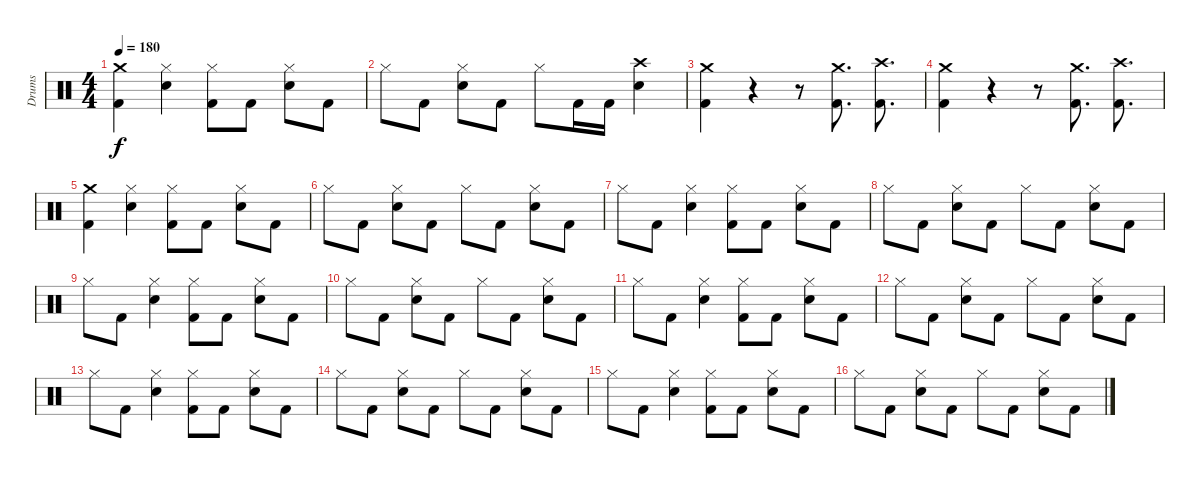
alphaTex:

\track ("Drums" "Drums") {instrument percussion}
\staff {score}
\articulation defaults
\ts (4 4)
\tempo 180
\clef neutral
\ks c
("Crash medium (hit)" "Kick (hit) 2").4{dy f} ("Hi-Hat (closed)" "Electric Snare (hit)").4 ("Hi-Hat (closed)" "Kick (hit) 2").8 "Kick (hit) 2".8 ("Hi-Hat (closed)" "Electric Snare (hit)").8 "Kick (hit) 2".8 |
"Hi-Hat (closed)".8 "Kick (hit) 2".8 ("Hi-Hat (closed)" "Electric Snare (hit)").8 "Kick (hit) 2".8 "Hi-Hat (closed)".8 "Kick (hit) 2".16 "Kick (hit) 2".16 ("Crash high (hit)" "Electric Snare (hit)").4 |
("Crash medium (hit)" "Kick (hit) 2").4 r.4 r.8 ("Crash medium (hit)" "Kick (hit) 2").8{d} ("Crash high (hit)" "Kick (hit) 2").8{d} |
("Crash medium (hit)" "Kick (hit) 2").4 r.4 r.8 ("Crash medium (hit)" "Kick (hit) 2").8{d} ("Crash high (hit)" "Kick (hit) 2").8{d} |
("Crash medium (hit)" "Kick (hit) 2").4 ("Hi-Hat (closed)" "Electric Snare (hit)").4 ("Hi-Hat (closed)" "Kick (hit) 2").8 "Kick (hit) 2".8 ("Hi-Hat (closed)" "Electric Snare (hit)").8 "Kick (hit) 2".8 |
"Hi-Hat (closed)".8 "Kick (hit) 2".8 ("Hi-Hat (closed)" "Electric Snare (hit)").8 "Kick (hit) 2".8 "Hi-Hat (closed)".8 "Kick (hit) 2".8 ("Hi-Hat (closed)" "Electric Snare (hit)").8 "Kick (hit) 2".8 |
"Hi-Hat (closed)".8 "Kick (hit) 2".8 ("Hi-Hat (closed)" "Electric Snare (hit)").4 ("Hi-Hat (closed)" "Kick (hit) 2").8 "Kick (hit) 2".8 ("Hi-Hat (closed)" "Electric Snare (hit)").8 "Kick (hit) 2".8 |
"Hi-Hat (closed)".8 "Kick (hit) 2".8 ("Hi-Hat (closed)" "Electric Snare (hit)").8 "Kick (hit) 2".8 "Hi-Hat (closed)".8 "Kick (hit) 2".8 ("Hi-Hat (closed)" "Electric Snare (hit)").8 "Kick (hit) 2".8 |
"Hi-Hat (closed)".8 "Kick (hit) 2".8 ("Hi-Hat (closed)" "Electric Snare (hit)").4 ("Hi-Hat (closed)" "Kick (hit) 2").8 "Kick (hit) 2".8 ("Hi-Hat (closed)" "Electric Snare (hit)").8 "Kick (hit) 2".8 |
"Hi-Hat (closed)".8 "Kick (hit) 2".8 ("Hi-Hat (closed)" "Electric Snare (hit)").8 "Kick (hit) 2".8 "Hi-Hat (closed)".8 "Kick (hit) 2".8 ("Hi-Hat (closed)" "Electric Snare (hit)").8 "Kick (hit) 2".8 |
"Hi-Hat (closed)".8 "Kick (hit) 2".8 ("Hi-Hat (closed)" "Electric Snare (hit)").4 ("Hi-Hat (closed)" "Kick (hit) 2").8 "Kick (hit) 2".8 ("Hi-Hat (closed)" "Electric Snare (hit)").8 "Kick (hit) 2".8 |
"Hi-Hat (closed)".8 "Kick (hit) 2".8 ("Hi-Hat (closed)" "Electric Snare (hit)").8 "Kick (hit) 2".8 "Hi-Hat (closed)".8 "Kick (hit) 2".8 ("Hi-Hat (closed)" "Electric Snare (hit)").8 "Kick (hit) 2".8 |
"Hi-Hat (closed)".8 "Kick (hit) 2".8 ("Hi-Hat (closed)" "Electric Snare (hit)").4 ("Hi-Hat (closed)" "Kick (hit) 2").8 "Kick (hit) 2".8 ("Hi-Hat (closed)" "Electric Snare (hit)").8 "Kick (hit) 2".8 |
"Hi-Hat (closed)".8 "Kick (hit) 2".8 ("Hi-Hat (closed)" "Electric Snare (hit)").8 "Kick (hit) 2".8 "Hi-Hat (closed)".8 "Kick (hit) 2".8 ("Hi-Hat (closed)" "Electric Snare (hit)").8 "Kick (hit) 2".8 |
"Hi-Hat (closed)".8 "Kick (hit) 2".8 ("Hi-Hat (closed)" "Electric Snare (hit)").4 ("Hi-Hat (closed)" "Kick (hit) 2").8 "Kick (hit) 2".8 ("Hi-Hat (closed)" "Electric Snare (hit)").8 "Kick (hit) 2".8 |
"Hi-Hat (closed)".8 "Kick (hit) 2".8 ("Hi-Hat (closed)" "Electric Snare (hit)").8 "Kick (hit) 2".8 "Hi-Hat (closed)".8 "Kick (hit) 2".8 ("Hi-Hat (closed)" "Electric Snare (hit)").8 "Kick (hit) 2".8
